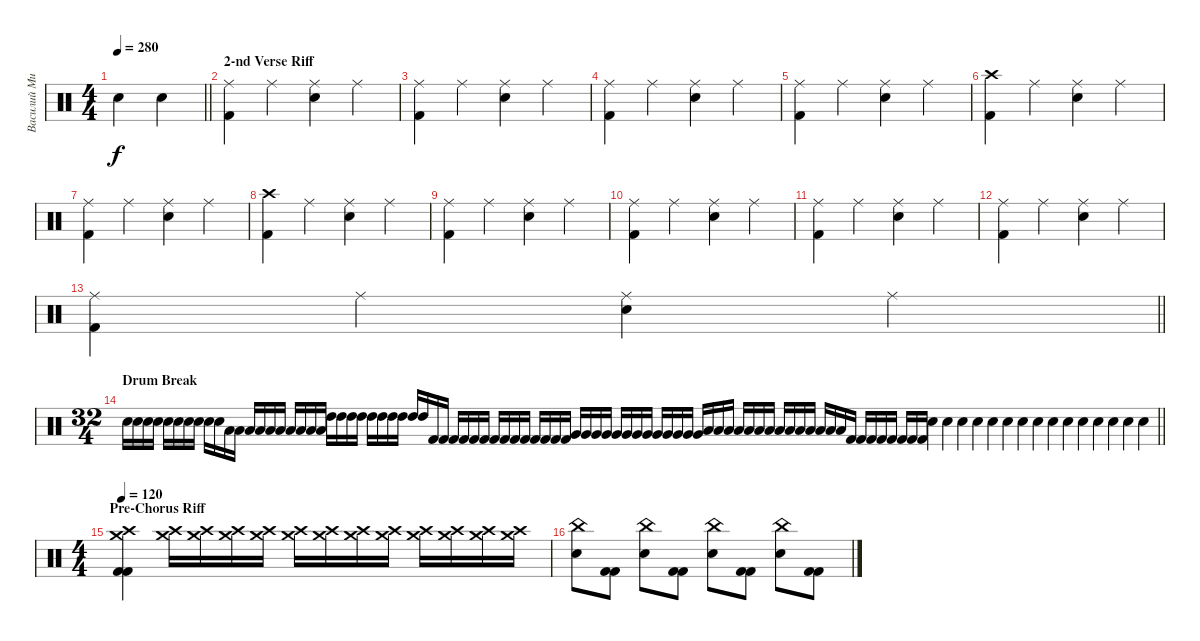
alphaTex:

\track ("Василий Михалыч-ударные" "Василий Ми") {instrument percussion}
\staff {score}
\articulation defaults
\ts (4 4)
\tempo 280
\clef neutral
\barLineRight lightlight
\ks c "Snare (hit) 2".4{dy f} "Snare (hit) 2".4
|
\section ("" "2-nd Verse Riff")
("Kick (hit) 2" "Ride (middle)").4 "Ride (middle)".4 ("Snare (hit) 2" "Ride (middle)").4 "Ride (middle)".4 |
("Kick (hit) 2" "Ride (middle)").4 "Ride (middle)".4 ("Snare (hit) 2" "Ride (middle)").4 "Ride (middle)".4 |
("Kick (hit) 2" "Ride (middle)").4 "Ride (middle)".4 ("Snare (hit) 2" "Ride (middle)").4 "Ride (middle)".4 |
("Kick (hit) 2" "Ride (middle)").4 "Ride (middle)".4 ("Snare (hit) 2" "Ride (middle)").4 "Ride (middle)".4 |
("Kick (hit) 2" "Crash high (hit)").4 "Ride (middle)".4 ("Snare (hit) 2" "Ride (middle)").4 "Ride (middle)".4 |
("Kick (hit) 2" "Ride (middle)").4 "Ride (middle)".4 ("Snare (hit) 2" "Ride (middle)").4 "Ride (middle)".4 |
("Kick (hit) 2" "Crash high (hit)").4 "Ride (middle)".4 ("Snare (hit) 2" "Ride (middle)").4 "Ride (middle)".4 |
("Kick (hit) 2" "Ride (middle)").4 "Ride (middle)".4 ("Snare (hit) 2" "Ride (middle)").4 "Ride (middle)".4 |
("Kick (hit) 2" "Ride (middle)").4 "Ride (middle)".4 ("Snare (hit) 2" "Ride (middle)").4 "Ride (middle)".4 |
("Kick (hit) 2" "Ride (middle)").4 "Ride (middle)".4 ("Snare (hit) 2" "Ride (middle)").4 "Ride (middle)".4 |
("Kick (hit) 2" "Ride (middle)").4 "Ride (middle)".4 ("Snare (hit) 2" "Ride (middle)").4 "Ride (middle)".4 |
\barLineRight lightlight
("Kick (hit) 2" "Ride (middle)").4 "Ride (middle)".4 ("Snare (hit) 2" "Ride (middle)").4 "Ride (middle)".4 |
\ts (32 4)
\section ("" "Drum Break")
\barLineRight lightlight "Snare (hit) 2".16 "Snare (hit) 2".16 "Snare (hit) 2".16 "Snare (hit) 2".16 "Snare (hit) 2".16 "Snare (hit) 2".16 "Snare (hit) 2".16 "Snare (hit) 2".16 "Snare (hit) 2".16 "Snare (hit) 2".16 "Low Tom (hit)".16 "Low Tom (hit)".16 "Low Tom (hit)".16 "Low Tom (hit)".16 "Low Tom (hit)".16 "Low Tom (hit)".16 "Low Tom (hit)".16 "Low Tom (hit)".16 "Low Tom (hit)".16 "Low Tom (hit)".16 "High Tom (hit)".16 "High Tom (hit)".16 "High Tom (hit)".16 "High Tom (hit)".16 "High Tom (hit)".16 "High Tom (hit)".16 "High Tom (hit)".16 "High Tom (hit)".16 "High Tom (hit)".16 "High Tom (hit)".16 "Kick (hit) 2".16 "Kick (hit) 2".16 "Kick (hit) 2".16 "Kick (hit) 2".16 "Kick (hit) 2".16 "Kick (hit) 2".16 "Kick (hit) 2".16 "Kick (hit) 2".16 "Kick (hit) 2".16 "Kick (hit) 2".16 "Kick (hit) 2".16 "Kick (hit) 2".16 "Kick (hit) 2".16 "Kick (hit) 2".16 "Very Low Tom (hit)".16 "Very Low Tom (hit)".16 "Very Low Tom (hit)".16 "Very Low Tom (hit)".16 "Very Low Tom (hit)".16 "Very Low Tom (hit)".16 "Very Low Tom (hit)".16 "Very Low Tom (hit)".16 "Very Low Tom (hit)".16 "Very Low Tom (hit)".16 "Very Low Tom (hit)".16 "Very Low Tom (hit)".16 "Very Low Tom (hit)".16 "Low Tom (hit)".16 "Low Tom (hit)".16 "Low Tom (hit)".16 "Low Tom (hit)".16 "Low Tom (hit)".16 "Low Tom (hit)".16 "Low Tom (hit)".16 "Low Tom (hit)".16 "Low Tom (hit)".16 "Low Tom (hit)".16 "Low Tom (hit)".16 "Low Tom (hit)".16 "Low Tom (hit)".16 "Low Tom (hit)".16 "Kick (hit) 2".16 "Kick (hit) 2".16 "Kick (hit) 2".16 "Kick (hit) 2".16 "Kick (hit) 2".16 "Kick (hit) 2".16 "Kick (hit) 2".16 "Kick (hit) 2".16 "Snare (hit) 2".4 "Snare (hit) 2".4 "Snare (hit) 2".4 "Snare (hit) 2".4 "Snare (hit) 2".4 "Snare (hit) 2".4 "Snare (hit) 2".4 "Snare (hit) 2".4 "Snare (hit) 2".4 "Snare (hit) 2".4 "Snare (hit) 2".4 "Snare (hit) 2".4 "Snare (hit) 2".4 "Snare (hit) 2".4 "Snare (hit) 2".4
|
\ts (4 4)
\section ("" "Pre-Chorus Riff")
\tempo 120
("Kick (hit) 2" "Kick (hit) 2" "Crash high (hit)" "Crash medium (hit)").4 ("Crash high (hit)" "Crash medium (hit)").16 ("Crash high (hit)" "Crash medium (hit)").16 ("Crash high (hit)" "Crash medium (hit)").16 ("Crash high (hit)" "Crash medium (hit)").16 ("Crash high (hit)" "Crash medium (hit)").16 ("Crash high (hit)" "Crash medium (hit)").16 ("Crash high (hit)" "Crash medium (hit)").16 ("Crash high (hit)" "Crash medium (hit)").16 ("Crash high (hit)" "Crash medium (hit)").16 ("Crash high (hit)" "Crash medium (hit)").16 ("Crash high (hit)" "Crash medium (hit)").16 ("Crash high (hit)" "Crash medium (hit)").16 |
("Electric Snare (hit)" "China (hit)").8 ("Kick (hit) 2" "Kick (hit) 2").8 ("Electric Snare (hit)" "China (hit)").8 ("Kick (hit) 2" "Kick (hit) 2").8 ("Electric Snare (hit)" "China (hit)").8 ("Kick (hit) 2" "Kick (hit) 2").8 ("Electric Snare (hit)" "China (hit)").8 ("Kick (hit) 2" "Kick (hit) 2").8
